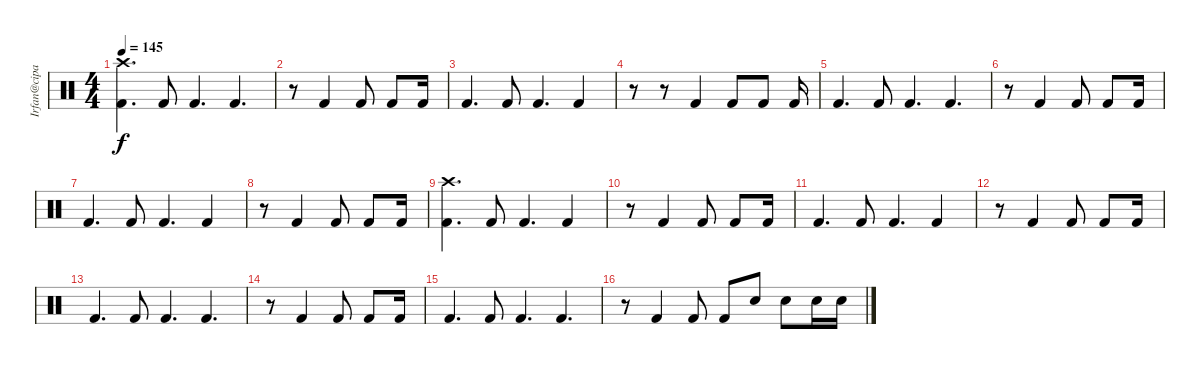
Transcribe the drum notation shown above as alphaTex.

\track ("Irfan@cipan" "Irfan@cipa") {instrument percussion}
\staff {score}
\articulation defaults
\ts (4 4)
\tempo 145
\clef neutral
\ks c
("Crash high (hit)" "Kick (hit) 2").4{d dy f} "Kick (hit) 2".8 "Kick (hit) 2".4{d} "Kick (hit) 2".4{d} |
r.8 "Kick (hit) 2".4 "Kick (hit) 2".8 "Kick (hit) 2".8 "Kick (hit) 2".16 |
"Kick (hit) 2".4{d} "Kick (hit) 2".8 "Kick (hit) 2".4{d} "Kick (hit) 2".4 |
r.8 r.8 "Kick (hit) 2".4 "Kick (hit) 2".8 "Kick (hit) 2".8 "Kick (hit) 2".16 |
"Kick (hit) 2".4{d} "Kick (hit) 2".8 "Kick (hit) 2".4{d} "Kick (hit) 2".4{d} |
r.8 "Kick (hit) 2".4 "Kick (hit) 2".8 "Kick (hit) 2".8 "Kick (hit) 2".16 |
"Kick (hit) 2".4{d} "Kick (hit) 2".8 "Kick (hit) 2".4{d} "Kick (hit) 2".4 |
r.8 "Kick (hit) 2".4 "Kick (hit) 2".8 "Kick (hit) 2".8 "Kick (hit) 2".16 |
("Crash high (hit)" "Kick (hit) 2").4{d} "Kick (hit) 2".8 "Kick (hit) 2".4{d} "Kick (hit) 2".4 |
r.8 "Kick (hit) 2".4 "Kick (hit) 2".8 "Kick (hit) 2".8 "Kick (hit) 2".16 |
"Kick (hit) 2".4{d} "Kick (hit) 2".8 "Kick (hit) 2".4{d} "Kick (hit) 2".4 |
r.8 "Kick (hit) 2".4 "Kick (hit) 2".8 "Kick (hit) 2".8 "Kick (hit) 2".16 |
"Kick (hit) 2".4{d} "Kick (hit) 2".8 "Kick (hit) 2".4{d} "Kick (hit) 2".4{d} |
r.8 "Kick (hit) 2".4 "Kick (hit) 2".8 "Kick (hit) 2".8 "Kick (hit) 2".16 |
"Kick (hit) 2".4{d} "Kick (hit) 2".8 "Kick (hit) 2".4{d} "Kick (hit) 2".4{d} |
r.8 "Kick (hit) 2".4 "Kick (hit) 2".8 "Kick (hit) 2".8 "Electric Snare (hit)".8 "Electric Snare (hit)".8 "Electric Snare (hit)".16 "Electric Snare (hit)".16
